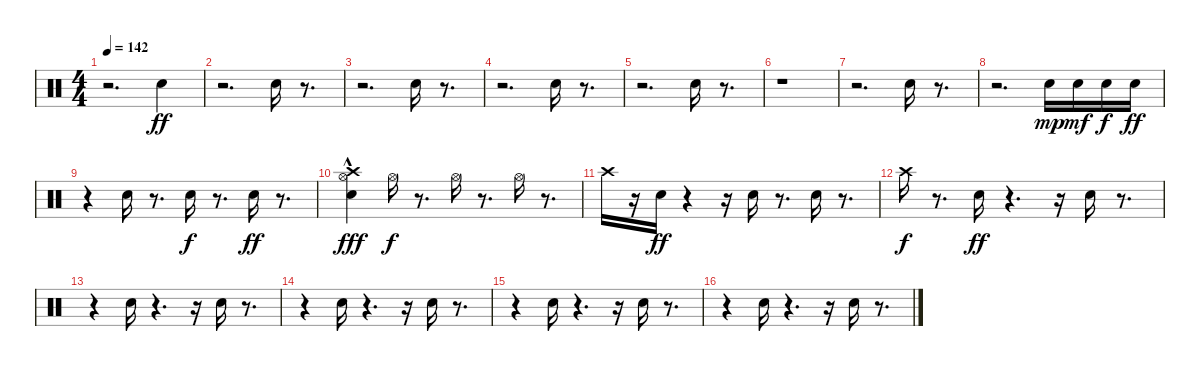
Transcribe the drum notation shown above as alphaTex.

\track "" {instrument percussion}
\staff {score}
\articulation defaults
\ts (4 4)
\tempo 142
\clef neutral
\ks c
r.2{d dy ff} "Snare (hit) 2".4 |
r.2{d} "Snare (hit) 2".16 r.8{d} |
r.2{d} "Snare (hit) 2".16 r.8{d} |
r.2{d} "Snare (hit) 2".16 r.8{d} |
r.2{d} "Snare (hit) 2".16 r.8{d} |
r.1 |
r.2{d} "Snare (hit) 2".16 r.8{d} |
r.2{d} "Snare (hit) 2".16{dy mp} "Snare (hit) 2".16{dy mf} "Snare (hit) 2".16{dy f} "Snare (hit) 2".16{dy ff} |
r.4 "Snare (hit) 2".16 r.8{d} "Snare (hit) 2".16{dy f} r.8{d} "Snare (hit) 2".16{dy ff} r.8{d} |
("Crash high (hit)" "Hi-Hat (open)" "Snare (hit) 2"{hac}).4{dy fff} "Hi-Hat (open)".16{dy f} r.8{d} "Hi-Hat (open)".16 r.8{d} "Hi-Hat (open)".16 r.8{d} |
"Crash high (hit)".16 r.16 "Snare (hit) 2".16{dy ff} r.4 r.16 "Snare (hit) 2".16 r.8{d} "Snare (hit) 2".16 r.8{d} |
"Crash high (hit)".16{dy f} r.8{d} "Snare (hit) 2".16{dy ff} r.4{d} r.16 "Snare (hit) 2".16 r.8{d} |
r.4 "Snare (hit) 2".16 r.4{d} r.16 "Snare (hit) 2".16 r.8{d} |
r.4 "Snare (hit) 2".16 r.4{d} r.16 "Snare (hit) 2".16 r.8{d} |
r.4 "Snare (hit) 2".16 r.4{d} r.16 "Snare (hit) 2".16 r.8{d} |
r.4 "Snare (hit) 2".16 r.4{d} r.16 "Snare (hit) 2".16 r.8{d}
